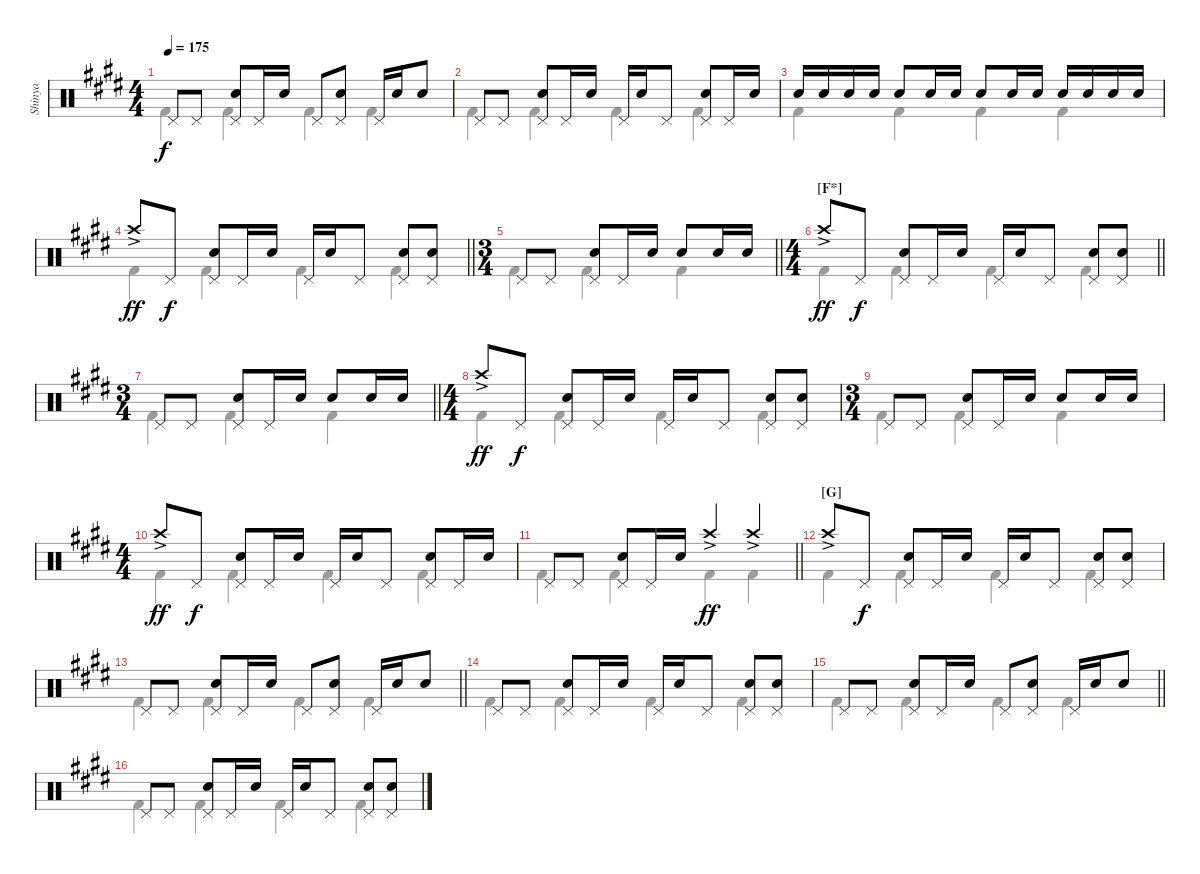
\track ("Shinya" "Shinya") {instrument percussion}
\staff {score}
\articulation defaults
\voice
\ts (4 4)
\tempo 175
\clef neutral
\ks c#minor "Pedal Hi-Hat (hit)".8{dy f} "Pedal Hi-Hat (hit)".8
("Pedal Hi-Hat (hit)" "Snare (hit) 2").8 "Pedal Hi-Hat (hit)".16 "Snare (hit) 2".16 "Pedal Hi-Hat (hit)".8 ("Pedal Hi-Hat (hit)" "Snare (hit) 2").8 "Pedal Hi-Hat (hit)".16 "Snare (hit) 2".16 "Snare (hit) 2".8 |
"Pedal Hi-Hat (hit)".8 "Pedal Hi-Hat (hit)".8 ("Pedal Hi-Hat (hit)" "Snare (hit) 2").8 "Pedal Hi-Hat (hit)".16 "Snare (hit) 2".16 "Pedal Hi-Hat (hit)".16 "Snare (hit) 2".16 "Pedal Hi-Hat (hit)".8 ("Pedal Hi-Hat (hit)" "Snare (hit) 2").8 "Pedal Hi-Hat (hit)".16 "Snare (hit) 2".16 |
"Snare (hit) 2".16 "Snare (hit) 2".16 "Snare (hit) 2".16 "Snare (hit) 2".16 "Snare (hit) 2".8 "Snare (hit) 2".16 "Snare (hit) 2".16 "Snare (hit) 2".8 "Snare (hit) 2".16 "Snare (hit) 2".16 "Snare (hit) 2".16 "Snare (hit) 2".16 "Snare (hit) 2".16 "Snare (hit) 2".16 |
\barLineRight lightlight "Crash high (hit)"{ac}.8{dy ff} "Pedal Hi-Hat (hit)".8{dy f}
("Pedal Hi-Hat (hit)" "Snare (hit) 2").8 "Pedal Hi-Hat (hit)".16 "Snare (hit) 2".16 "Pedal Hi-Hat (hit)".16 "Snare (hit) 2".16 "Pedal Hi-Hat (hit)".8 ("Pedal Hi-Hat (hit)" "Snare (hit) 2").8 ("Pedal Hi-Hat (hit)" "Snare (hit) 2").8 |
\ts (3 4)
\barLineRight lightlight "Pedal Hi-Hat (hit)".8 "Pedal Hi-Hat (hit)".8
("Pedal Hi-Hat (hit)" "Snare (hit) 2").8 "Pedal Hi-Hat (hit)".16 "Snare (hit) 2".16 "Snare (hit) 2".8 "Snare (hit) 2".16 "Snare (hit) 2".16 |
\ts (4 4)
\section ("" "[F*]")
\barLineRight lightlight "Crash high (hit)"{ac}.8{dy ff} "Pedal Hi-Hat (hit)".8{dy f}
("Pedal Hi-Hat (hit)" "Snare (hit) 2").8 "Pedal Hi-Hat (hit)".16 "Snare (hit) 2".16 "Pedal Hi-Hat (hit)".16 "Snare (hit) 2".16 "Pedal Hi-Hat (hit)".8 ("Pedal Hi-Hat (hit)" "Snare (hit) 2").8 ("Pedal Hi-Hat (hit)" "Snare (hit) 2").8 |
\ts (3 4)
\barLineRight lightlight "Pedal Hi-Hat (hit)".8 "Pedal Hi-Hat (hit)".8
("Pedal Hi-Hat (hit)" "Snare (hit) 2").8 "Pedal Hi-Hat (hit)".16 "Snare (hit) 2".16 "Snare (hit) 2".8 "Snare (hit) 2".16 "Snare (hit) 2".16 |
\ts (4 4)
"Crash high (hit)"{ac}.8{dy ff} "Pedal Hi-Hat (hit)".8{dy f} ("Pedal Hi-Hat (hit)" "Snare (hit) 2").8 "Pedal Hi-Hat (hit)".16 "Snare (hit) 2".16 "Pedal Hi-Hat (hit)".16 "Snare (hit) 2".16 "Pedal Hi-Hat (hit)".8 ("Pedal Hi-Hat (hit)" "Snare (hit) 2").8 ("Pedal Hi-Hat (hit)" "Snare (hit) 2").8 |
\ts (3 4)
"Pedal Hi-Hat (hit)".8 "Pedal Hi-Hat (hit)".8 ("Pedal Hi-Hat (hit)" "Snare (hit) 2").8 "Pedal Hi-Hat (hit)".16 "Snare (hit) 2".16 "Snare (hit) 2".8 "Snare (hit) 2".16 "Snare (hit) 2".16 |
\ts (4 4)
"Crash high (hit)"{ac}.8{dy ff} "Pedal Hi-Hat (hit)".8{dy f} ("Pedal Hi-Hat (hit)" "Snare (hit) 2").8 "Pedal Hi-Hat (hit)".16 "Snare (hit) 2".16 "Pedal Hi-Hat (hit)".16 "Snare (hit) 2".16 "Pedal Hi-Hat (hit)".8 ("Pedal Hi-Hat (hit)" "Snare (hit) 2").8 "Pedal Hi-Hat (hit)".16 "Snare (hit) 2".16 |
\barLineRight lightlight "Pedal Hi-Hat (hit)".8 "Pedal Hi-Hat (hit)".8
("Pedal Hi-Hat (hit)" "Snare (hit) 2").8 "Pedal Hi-Hat (hit)".16 "Snare (hit) 2".16 "Crash high (hit)"{ac}.4{dy ff} "Crash high (hit)"{ac}.4 |
\section ("" "[G]")
"Crash high (hit)"{ac}.8 "Pedal Hi-Hat (hit)".8{dy f} ("Pedal Hi-Hat (hit)" "Snare (hit) 2").8 "Pedal Hi-Hat (hit)".16 "Snare (hit) 2".16 "Pedal Hi-Hat (hit)".16 "Snare (hit) 2".16 "Pedal Hi-Hat (hit)".8 ("Pedal Hi-Hat (hit)" "Snare (hit) 2").8 ("Pedal Hi-Hat (hit)" "Snare (hit) 2").8 |
\barLineRight lightlight "Pedal Hi-Hat (hit)".8 "Pedal Hi-Hat (hit)".8
("Pedal Hi-Hat (hit)" "Snare (hit) 2").8 "Pedal Hi-Hat (hit)".16 "Snare (hit) 2".16 "Pedal Hi-Hat (hit)".8 ("Pedal Hi-Hat (hit)" "Snare (hit) 2").8 "Pedal Hi-Hat (hit)".16 "Snare (hit) 2".16 "Snare (hit) 2".8 |
"Pedal Hi-Hat (hit)".8 "Pedal Hi-Hat (hit)".8 ("Pedal Hi-Hat (hit)" "Snare (hit) 2").8 "Pedal Hi-Hat (hit)".16 "Snare (hit) 2".16 "Pedal Hi-Hat (hit)".16 "Snare (hit) 2".16 "Pedal Hi-Hat (hit)".8 ("Pedal Hi-Hat (hit)" "Snare (hit) 2").8 ("Pedal Hi-Hat (hit)" "Snare (hit) 2").8 |
\barLineRight lightlight "Pedal Hi-Hat (hit)".8 "Pedal Hi-Hat (hit)".8
("Pedal Hi-Hat (hit)" "Snare (hit) 2").8 "Pedal Hi-Hat (hit)".16 "Snare (hit) 2".16 "Pedal Hi-Hat (hit)".8 ("Pedal Hi-Hat (hit)" "Snare (hit) 2").8 "Pedal Hi-Hat (hit)".16 "Snare (hit) 2".16 "Snare (hit) 2".8 |
"Pedal Hi-Hat (hit)".8 "Pedal Hi-Hat (hit)".8 ("Pedal Hi-Hat (hit)" "Snare (hit) 2").8 "Pedal Hi-Hat (hit)".16 "Snare (hit) 2".16 "Pedal Hi-Hat (hit)".16 "Snare (hit) 2".16 "Pedal Hi-Hat (hit)".8 ("Pedal Hi-Hat (hit)" "Snare (hit) 2").8 ("Pedal Hi-Hat (hit)" "Snare (hit) 2").8
\voice
\clef neutral
\ottava regular
\simile none
\ks c#minor "Kick (hit) 2".4{dy f} "Kick (hit) 2".4 "Kick (hit) 2".4 "Kick (hit) 2".4
|
"Kick (hit) 2".4 "Kick (hit) 2".4 "Kick (hit) 2".4 "Kick (hit) 2".4 |
"Kick (hit) 2".4 "Kick (hit) 2".4 "Kick (hit) 2".4 "Kick (hit) 2".4 |
\barLineRight lightlight "Kick (hit) 2".4 "Kick (hit) 2".4 "Kick (hit) 2".4 "Kick (hit) 2".4
|
\barLineRight lightlight "Kick (hit) 2".4 "Kick (hit) 2".4 "Kick (hit) 2".4
|
\barLineRight lightlight "Kick (hit) 2".4 "Kick (hit) 2".4 "Kick (hit) 2".4 "Kick (hit) 2".4
|
\barLineRight lightlight "Kick (hit) 2".4 "Kick (hit) 2".4 "Kick (hit) 2".4
|
"Kick (hit) 2".4 "Kick (hit) 2".4 "Kick (hit) 2".4 "Kick (hit) 2".4 |
"Kick (hit) 2".4 "Kick (hit) 2".4 "Kick (hit) 2".4 |
"Kick (hit) 2".4 "Kick (hit) 2".4 "Kick (hit) 2".4 "Kick (hit) 2".4 |
\barLineRight lightlight "Kick (hit) 2".4 "Kick (hit) 2".4 "Kick (hit) 2".4 "Kick (hit) 2".4
|
"Kick (hit) 2".4 "Kick (hit) 2".4 "Kick (hit) 2".4 "Kick (hit) 2".4 |
\barLineRight lightlight "Kick (hit) 2".4 "Kick (hit) 2".4 "Kick (hit) 2".4 "Kick (hit) 2".4
|
"Kick (hit) 2".4 "Kick (hit) 2".4 "Kick (hit) 2".4 "Kick (hit) 2".4 |
\barLineRight lightlight "Kick (hit) 2".4 "Kick (hit) 2".4 "Kick (hit) 2".4 "Kick (hit) 2".4
|
"Kick (hit) 2".4 "Kick (hit) 2".4 "Kick (hit) 2".4 "Kick (hit) 2".4
